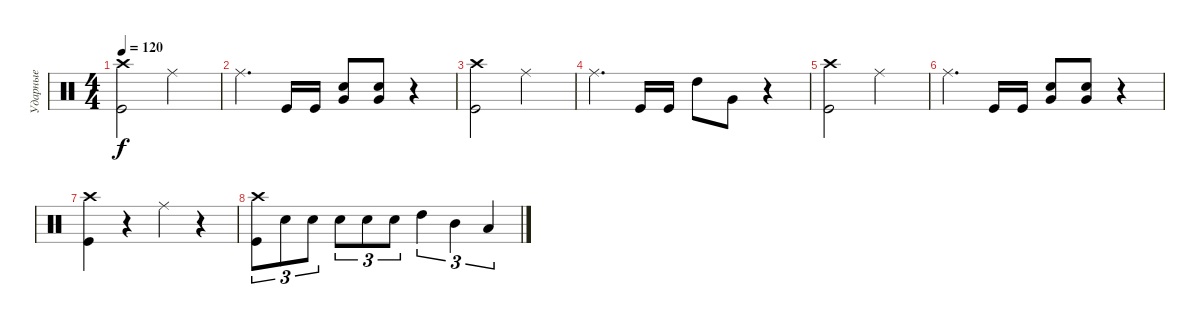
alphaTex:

\track ("Ударные" "Ударные") {instrument percussion}
\staff {score}
\articulation defaults
\ts (4 4)
\tempo 120
\clef neutral
\ks c
("Kick (hit)" "Crash high (hit)").2{dy f} "Ride (middle)".2 |
"Ride (middle)".4{d} "Kick (hit)".16 "Kick (hit)".16 ("Very Low Tom (hit)" "Snare (hit) 2").8 ("Very Low Tom (hit)" "Snare (hit) 2").8 r.4 |
("Kick (hit)" "Crash high (hit)").2 "Ride (middle)".2 |
"Ride (middle)".4{d} "Kick (hit)".16 "Kick (hit)".16 "High Tom (hit)".8 "Very Low Tom (hit)".8 r.4 |
("Kick (hit)" "Crash high (hit)").2 "Ride (middle)".2 |
"Ride (middle)".4{d} "Kick (hit)".16 "Kick (hit)".16 ("Very Low Tom (hit)" "Snare (hit) 2").8 ("Very Low Tom (hit)" "Snare (hit) 2").8 r.4 |
("Kick (hit)" "Crash high (hit)").4 r.4 "Ride (middle)".4 r.4 |
("Kick (hit)" "Crash high (hit)").8{tu (3 2)} "Snare (hit) 2".8{tu (3 2)} "Snare (hit) 2".8{tu (3 2)} "Snare (hit) 2".8{tu (3 2)} "Snare (hit) 2".8{tu (3 2)} "Snare (hit) 2".8{tu (3 2)} "High Tom (hit)".4{tu (3 2)} "Mid Tom (hit)".4{tu (3 2)} "Low Tom (hit)".4{tu (3 2)}
